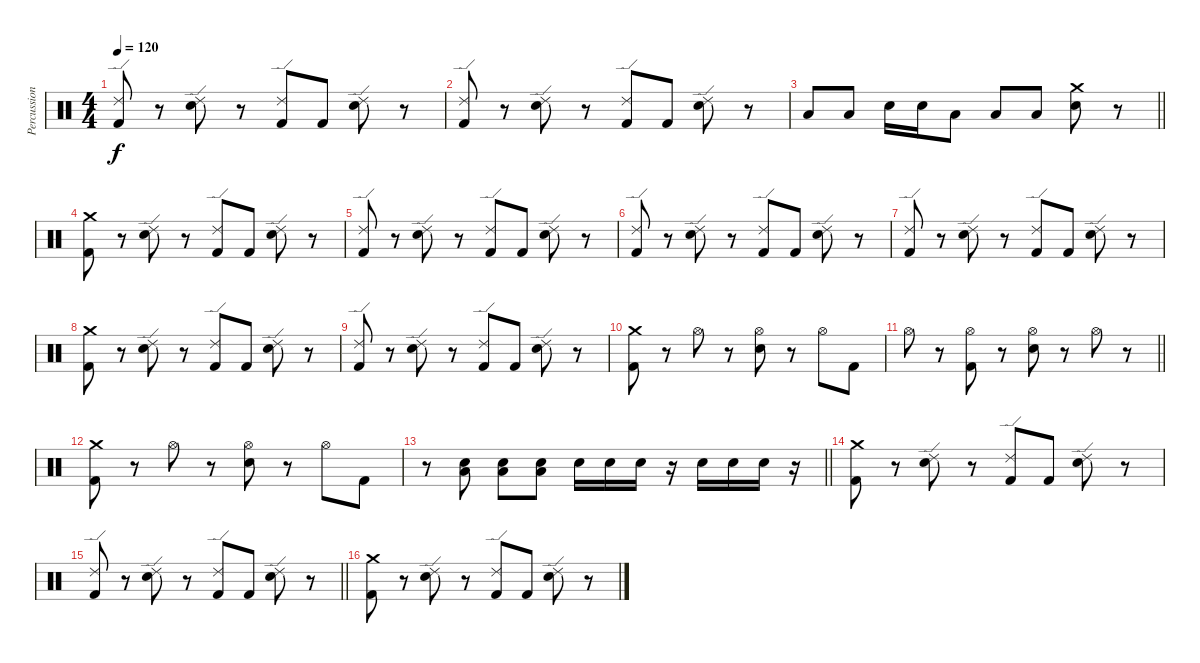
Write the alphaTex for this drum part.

\track ("Percussion" "Percussion") {instrument percussion}
\staff {score}
\articulation defaults
\ts (4 4)
\tempo 120
\clef neutral
\ks c
("Ride (edge) 2" "Kick (hit) 2").8{dy f} r.8 ("Ride (edge) 2" "Electric Snare (hit)").8 r.8 ("Ride (edge) 2" "Kick (hit) 2").8 "Kick (hit) 2".8 ("Ride (edge) 2" "Electric Snare (hit)").8 r.8 |
("Ride (edge) 2" "Kick (hit) 2").8 r.8 ("Ride (edge) 2" "Electric Snare (hit)").8 r.8 ("Ride (edge) 2" "Kick (hit) 2").8 "Kick (hit) 2".8 ("Ride (edge) 2" "Electric Snare (hit)").8 r.8 |
\barLineRight lightlight "Low Tom (hit)".8 "Low Tom (hit)".8 "Electric Snare (hit)".16 "Electric Snare (hit)".16 "Low Tom (hit)".8 "Low Tom (hit)".8 "Low Tom (hit)".8
("Crash medium (hit)" "Electric Snare (hit)").8 r.8 |
("Crash medium (hit)" "Kick (hit) 2").8 r.8 ("Ride (edge) 2" "Electric Snare (hit)").8 r.8 ("Ride (edge) 2" "Kick (hit) 2").8 "Kick (hit) 2".8 ("Ride (edge) 2" "Electric Snare (hit)").8 r.8 |
("Ride (edge) 2" "Kick (hit) 2").8 r.8 ("Ride (edge) 2" "Electric Snare (hit)").8 r.8 ("Ride (edge) 2" "Kick (hit) 2").8 "Kick (hit) 2".8 ("Ride (edge) 2" "Electric Snare (hit)").8 r.8 |
("Ride (edge) 2" "Kick (hit) 2").8 r.8 ("Ride (edge) 2" "Electric Snare (hit)").8 r.8 ("Ride (edge) 2" "Kick (hit) 2").8 "Kick (hit) 2".8 ("Ride (edge) 2" "Electric Snare (hit)").8 r.8 |
("Ride (edge) 2" "Kick (hit) 2").8 r.8 ("Ride (edge) 2" "Electric Snare (hit)").8 r.8 ("Ride (edge) 2" "Kick (hit) 2").8 "Kick (hit) 2".8 ("Ride (edge) 2" "Electric Snare (hit)").8 r.8 |
("Crash medium (hit)" "Kick (hit) 2").8 r.8 ("Ride (edge) 2" "Electric Snare (hit)").8 r.8 ("Ride (edge) 2" "Kick (hit) 2").8 "Kick (hit) 2".8 ("Ride (edge) 2" "Electric Snare (hit)").8 r.8 |
("Ride (edge) 2" "Kick (hit) 2").8 r.8 ("Ride (edge) 2" "Electric Snare (hit)").8 r.8 ("Ride (edge) 2" "Kick (hit) 2").8 "Kick (hit) 2".8 ("Ride (edge) 2" "Electric Snare (hit)").8 r.8 |
("Crash medium (hit)" "Kick (hit) 2").8 r.8 "Hi-Hat (open)".8 r.8 ("Hi-Hat (open)" "Electric Snare (hit)").8 r.8 "Hi-Hat (open)".8 "Kick (hit) 2".8 |
\barLineRight lightlight "Hi-Hat (open)".8
r.8 ("Hi-Hat (open)" "Kick (hit) 2").8 r.8 ("Hi-Hat (open)" "Electric Snare (hit)").8 r.8 "Hi-Hat (open)".8 r.8 |
("Crash medium (hit)" "Kick (hit) 2").8 r.8 "Hi-Hat (open)".8 r.8 ("Hi-Hat (open)" "Electric Snare (hit)").8 r.8 "Hi-Hat (open)".8 "Kick (hit) 2".8 |
\barLineRight lightlight
r.8 ("Low Tom (hit)" "Electric Snare (hit)").8 ("Low Tom (hit)" "Electric Snare (hit)").8 ("Low Tom (hit)" "Electric Snare (hit)").8 "Electric Snare (hit)".16 "Electric Snare (hit)".16 "Electric Snare (hit)".16 r.16 "Electric Snare (hit)".16 "Electric Snare (hit)".16 "Electric Snare (hit)".16 r.16 |
("Crash medium (hit)" "Kick (hit) 2").8 r.8 ("Ride (edge) 2" "Electric Snare (hit)").8 r.8 ("Ride (edge) 2" "Kick (hit) 2").8 "Kick (hit) 2".8 ("Ride (edge) 2" "Electric Snare (hit)").8 r.8 |
\barLineRight lightlight
("Ride (edge) 2" "Kick (hit) 2").8 r.8 ("Ride (edge) 2" "Electric Snare (hit)").8 r.8 ("Ride (edge) 2" "Kick (hit) 2").8 "Kick (hit) 2".8 ("Ride (edge) 2" "Electric Snare (hit)").8 r.8 |
("Crash medium (hit)" "Kick (hit) 2").8 r.8 ("Ride (edge) 2" "Electric Snare (hit)").8 r.8 ("Ride (edge) 2" "Kick (hit) 2").8 "Kick (hit) 2".8 ("Ride (edge) 2" "Electric Snare (hit)").8 r.8
